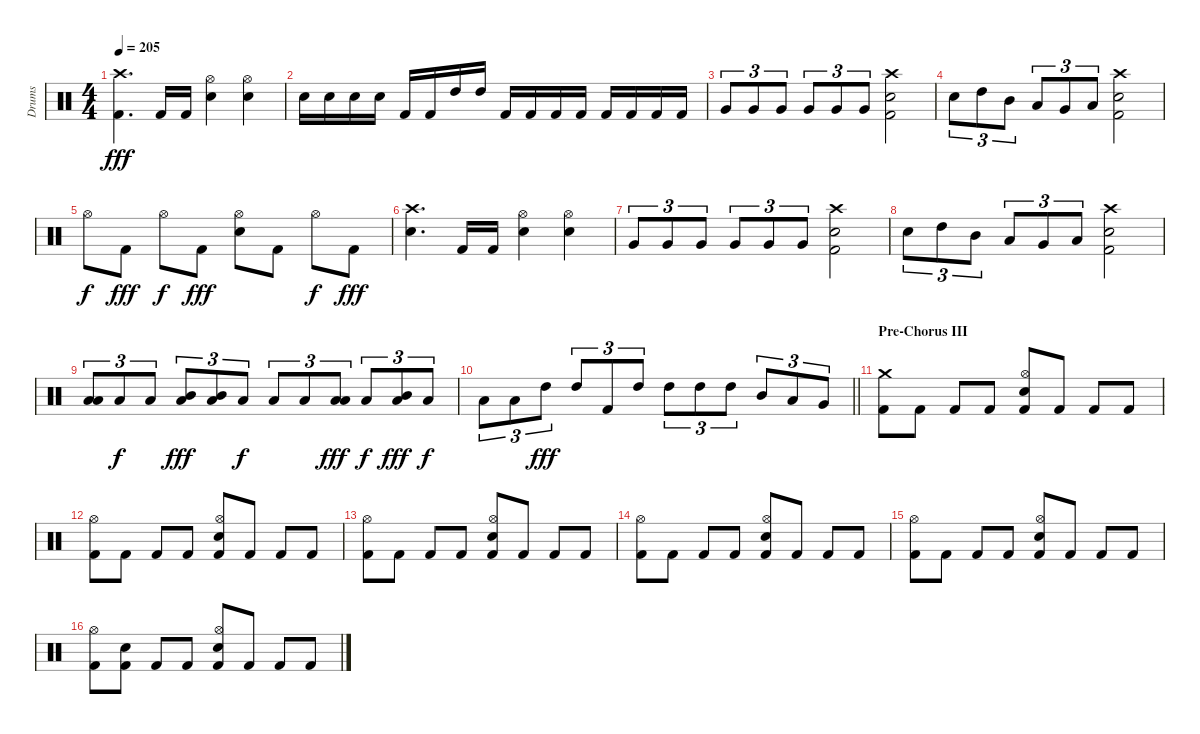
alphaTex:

\track ("Drums" "Drums") {instrument percussion}
\staff {score}
\articulation defaults
\ts (4 4)
\tempo 205
\clef neutral
\ks c
("Crash high (hit)" "Kick (hit) 2").4{d dy fff} "Kick (hit) 2".16 "Kick (hit) 2".16 ("Hi-Hat (open)" "Snare (hit) 2").4 ("Hi-Hat (open)" "Snare (hit) 2").4 |
"Snare (hit) 2".16 "Snare (hit) 2".16 "Snare (hit) 2".16 "Snare (hit) 2".16 "Kick (hit) 2".16 "Kick (hit) 2".16 "High Tom (hit)".16 "High Tom (hit)".16 "Kick (hit) 2".16 "Kick (hit) 2".16 "Kick (hit) 2".16 "Kick (hit) 2".16 "Kick (hit) 2".16 "Kick (hit) 2".16 "Kick (hit) 2".16 "Kick (hit) 2".16 |
"Very Low Tom (hit)".8{tu (3 2)} "Very Low Tom (hit)".8{tu (3 2)} "Very Low Tom (hit)".8{tu (3 2)} "Very Low Tom (hit)".8{tu (3 2)} "Very Low Tom (hit)".8{tu (3 2)} "Very Low Tom (hit)".8{tu (3 2)} ("Crash high (hit)" "Snare (hit) 2" "Kick (hit) 2").2 |
"Snare (hit) 2".8{tu (3 2)} "High Tom (hit)".8{tu (3 2)} "Mid Tom (hit)".8{tu (3 2)} "Low Tom (hit)".8{tu (3 2)} "Very Low Tom (hit)".8{tu (3 2)} "Low Floor Tom (hit)".8{tu (3 2)} ("Crash high (hit)" "Snare (hit) 2" "Kick (hit) 2").2 |
"Hi-Hat (open)".8{dy f} "Kick (hit) 2".8{dy fff} "Hi-Hat (open)".8{dy f} "Kick (hit) 2".8{dy fff} ("Hi-Hat (open)" "Snare (hit) 2").8 "Kick (hit) 2".8 "Hi-Hat (open)".8{dy f} "Kick (hit) 2".8{dy fff} |
("Crash high (hit)" "Snare (hit) 2").4{d} "Kick (hit) 2".16 "Kick (hit) 2".16 ("Hi-Hat (open)" "Snare (hit) 2").4 ("Hi-Hat (open)" "Snare (hit) 2").4 |
"Very Low Tom (hit)".8{tu (3 2)} "Very Low Tom (hit)".8{tu (3 2)} "Very Low Tom (hit)".8{tu (3 2)} "Very Low Tom (hit)".8{tu (3 2)} "Very Low Tom (hit)".8{tu (3 2)} "Very Low Tom (hit)".8{tu (3 2)} ("Crash high (hit)" "Snare (hit) 2" "Kick (hit) 2").2 |
"Snare (hit) 2".8{tu (3 2)} "High Tom (hit)".8{tu (3 2)} "Mid Tom (hit)".8{tu (3 2)} "Low Tom (hit)".8{tu (3 2)} "Very Low Tom (hit)".8{tu (3 2)} "Low Floor Tom (hit)".8{tu (3 2)} ("Crash high (hit)" "Snare (hit) 2" "Kick (hit) 2").2 |
("Low Tom (hit)" "Low Floor Tom (hit)").8{tu (3 2)} "Low Floor Tom (hit)".8{tu (3 2) dy f} "Low Floor Tom (hit)".8{tu (3 2)} ("Mid Tom (hit)" "Low Floor Tom (hit)").8{tu (3 2) dy fff} ("Mid Tom (hit)" "Low Floor Tom (hit)").8{tu (3 2)} "Low Floor Tom (hit)".8{tu (3 2) dy f} "Low Floor Tom (hit)".8{tu (3 2)} "Low Floor Tom (hit)".8{tu (3 2)} ("Low Tom (hit)" "Low Floor Tom (hit)").8{tu (3 2) dy fff} "Low Floor Tom (hit)".8{tu (3 2) dy f} ("Mid Tom (hit)" "Low Floor Tom (hit)").8{tu (3 2) dy fff} "Low Floor Tom (hit)".8{tu (3 2) dy f} |
\barLineRight lightlight "Low Floor Tom (hit)".8{tu (3 2)} "Low Floor Tom (hit)".8{tu (3 2)} "High Tom (hit)".8{tu (3 2) dy fff} "High Tom (hit)".8{tu (3 2)} "Kick (hit) 2".8{tu (3 2)} "High Tom (hit)".8{tu (3 2)} "High Tom (hit)".8{tu (3 2)} "High Tom (hit)".8{tu (3 2)} "High Tom (hit)".8{tu (3 2)} "Mid Tom (hit)".8{tu (3 2)} "Low Tom (hit)".8{tu (3 2)} "Very Low Tom (hit)".8{tu (3 2)}
|
\section ("" "Pre-Chorus III")
("Crash medium (hit)" "Kick (hit) 2").8 "Kick (hit) 2".8 "Kick (hit) 2".8 "Kick (hit) 2".8 ("Hi-Hat (open)" "Snare (hit) 2" "Kick (hit) 2").8 "Kick (hit) 2".8 "Kick (hit) 2".8 "Kick (hit) 2".8 |
("Hi-Hat (open)" "Kick (hit) 2").8 "Kick (hit) 2".8 "Kick (hit) 2".8 "Kick (hit) 2".8 ("Hi-Hat (open)" "Snare (hit) 2" "Kick (hit) 2").8 "Kick (hit) 2".8 "Kick (hit) 2".8 "Kick (hit) 2".8 |
("Hi-Hat (open)" "Kick (hit) 2").8 "Kick (hit) 2".8 "Kick (hit) 2".8 "Kick (hit) 2".8 ("Hi-Hat (open)" "Snare (hit) 2" "Kick (hit) 2").8 "Kick (hit) 2".8 "Kick (hit) 2".8 "Kick (hit) 2".8 |
("Hi-Hat (open)" "Kick (hit) 2").8 "Kick (hit) 2".8 "Kick (hit) 2".8 "Kick (hit) 2".8 ("Hi-Hat (open)" "Snare (hit) 2" "Kick (hit) 2").8 "Kick (hit) 2".8 "Kick (hit) 2".8 "Kick (hit) 2".8 |
("Hi-Hat (open)" "Kick (hit) 2").8 "Kick (hit) 2".8 "Kick (hit) 2".8 "Kick (hit) 2".8 ("Hi-Hat (open)" "Snare (hit) 2" "Kick (hit) 2").8 "Kick (hit) 2".8 "Kick (hit) 2".8 "Kick (hit) 2".8 |
("Hi-Hat (open)" "Kick (hit) 2").8 ("Snare (hit) 2" "Kick (hit) 2").8 "Kick (hit) 2".8 "Kick (hit) 2".8 ("Hi-Hat (open)" "Snare (hit) 2" "Kick (hit) 2").8 "Kick (hit) 2".8 "Kick (hit) 2".8 "Kick (hit) 2".8
